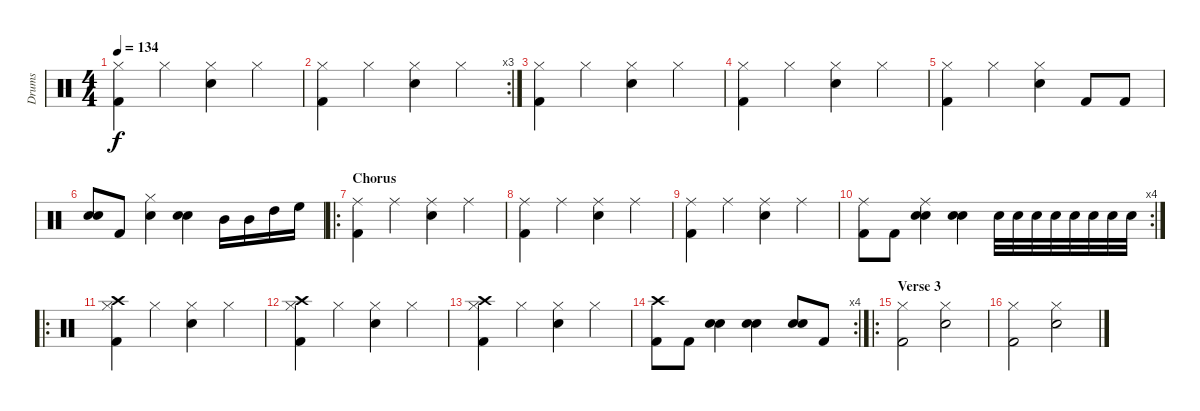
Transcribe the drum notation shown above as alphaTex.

\track ("Drums" "Drums") {instrument percussion}
\staff {score}
\articulation defaults
\ts (4 4)
\tempo 134
\clef neutral
\ks c
("Kick (hit) 2" "Hi-Hat (closed)").4{dy f} "Hi-Hat (closed)".4 ("Electric Snare (hit)" "Hi-Hat (closed)").4 "Hi-Hat (closed)".4 |
\rc 3
("Kick (hit) 2" "Hi-Hat (closed)").4 "Hi-Hat (closed)".4 ("Electric Snare (hit)" "Hi-Hat (closed)").4 "Hi-Hat (closed)".4 |
("Kick (hit) 2" "Hi-Hat (closed)").4 "Hi-Hat (closed)".4 ("Electric Snare (hit)" "Hi-Hat (closed)").4 "Hi-Hat (closed)".4 |
("Kick (hit) 2" "Hi-Hat (closed)").4 "Hi-Hat (closed)".4 ("Electric Snare (hit)" "Hi-Hat (closed)").4 "Hi-Hat (closed)".4 |
("Kick (hit) 2" "Hi-Hat (closed)").4 "Hi-Hat (closed)".4 ("Electric Snare (hit)" "Hi-Hat (closed)").4 "Kick (hit) 2".8 "Kick (hit) 2".8 |
("Electric Snare (hit)" "Electric Snare (hit)").8 "Kick (hit) 2".8 ("Electric Snare (hit)" "Hi-Hat (closed)").4 ("Electric Snare (hit)" "Electric Snare (hit)").4 "Mid Tom (hit)".16 "Mid Tom (hit)".16 "High Tom (hit)".16 "High Floor Tom (hit)".16 |
\ro
\section ("" "Chorus")
("Kick (hit) 2" "Ride (middle)").4 "Ride (middle)".4 ("Electric Snare (hit)" "Ride (middle)").4 "Ride (middle)".4 |
("Kick (hit) 2" "Ride (middle)").4 "Ride (middle)".4 ("Electric Snare (hit)" "Ride (middle)").4 "Ride (middle)".4 |
("Kick (hit) 2" "Ride (middle)").4 "Ride (middle)".4 ("Electric Snare (hit)" "Ride (middle)").4 "Ride (middle)".4 |
\rc 4
("Kick (hit) 2" "Ride (middle)").8 "Kick (hit) 2".8 ("Electric Snare (hit)" "Electric Snare (hit)" "Ride (middle)").4 ("Electric Snare (hit)" "Electric Snare (hit)").4 "Electric Snare (hit)".32 "Electric Snare (hit)".32 "Electric Snare (hit)".32 "Electric Snare (hit)".32 "Electric Snare (hit)".32 "Electric Snare (hit)".32 "Electric Snare (hit)".32 "Electric Snare (hit)".32 |
\ro
("Kick (hit) 2" "Hi-Hat (closed)" "Crash high (hit)").4 "Hi-Hat (closed)".4 ("Electric Snare (hit)" "Hi-Hat (closed)").4 "Hi-Hat (closed)".4 |
("Kick (hit) 2" "Hi-Hat (closed)" "Crash high (hit)").4 "Hi-Hat (closed)".4 ("Electric Snare (hit)" "Hi-Hat (closed)").4 "Hi-Hat (closed)".4 |
("Kick (hit) 2" "Hi-Hat (closed)" "Crash high (hit)").4 "Hi-Hat (closed)".4 ("Electric Snare (hit)" "Hi-Hat (closed)").4 "Hi-Hat (closed)".4 |
\rc 4
("Kick (hit) 2" "Crash high (hit)").8 "Kick (hit) 2".8 ("Electric Snare (hit)" "Electric Snare (hit)").4 ("Electric Snare (hit)" "Electric Snare (hit)").4 ("Electric Snare (hit)" "Electric Snare (hit)").8 "Kick (hit) 2".8 |
\ro
\section ("" "Verse 3")
("Kick (hit) 2" "Hi-Hat (closed)").2{volume 16} ("Electric Snare (hit)" "Hi-Hat (closed)").2 |
("Kick (hit) 2" "Hi-Hat (closed)").2 ("Electric Snare (hit)" "Hi-Hat (closed)").2
